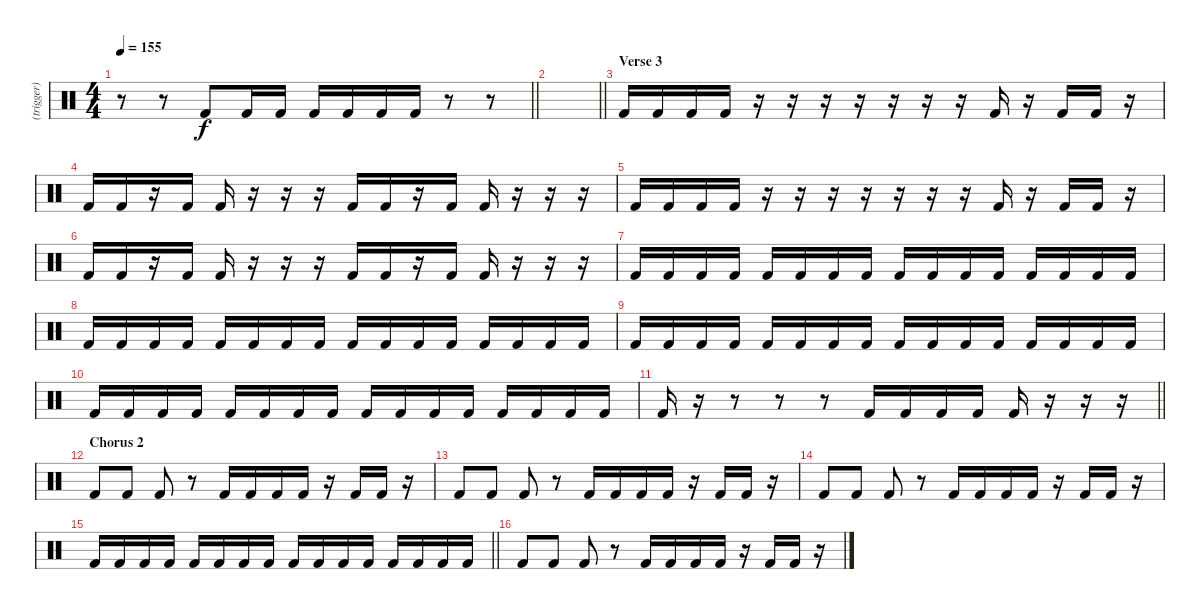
\track ("(trigger)" "(trigger)") {instrument percussion}
\staff {score}
\articulation defaults
\ts (4 4)
\tempo 155
\clef neutral
\barLineRight lightlight
\ks c
r.8{dy f} r.8 "Kick (hit) 2".8 "Kick (hit) 2".16 "Kick (hit) 2".16 "Kick (hit) 2".16 "Kick (hit) 2".16 "Kick (hit) 2".16 "Kick (hit) 2".16 r.8 r.8 |
\section ("" "")
\barLineRight lightlight
|
\section ("" "Verse 3")
"Kick (hit) 2".16 "Kick (hit) 2".16 "Kick (hit) 2".16 "Kick (hit) 2".16 r.16 r.16 r.16 r.16 r.16 r.16 r.16 "Kick (hit) 2".16 r.16 "Kick (hit) 2".16 "Kick (hit) 2".16 r.16 |
"Kick (hit) 2".16 "Kick (hit) 2".16 r.16 "Kick (hit) 2".16 "Kick (hit) 2".16 r.16 r.16 r.16 "Kick (hit) 2".16 "Kick (hit) 2".16 r.16 "Kick (hit) 2".16 "Kick (hit) 2".16 r.16 r.16 r.16 |
"Kick (hit) 2".16 "Kick (hit) 2".16 "Kick (hit) 2".16 "Kick (hit) 2".16 r.16 r.16 r.16 r.16 r.16 r.16 r.16 "Kick (hit) 2".16 r.16 "Kick (hit) 2".16 "Kick (hit) 2".16 r.16 |
"Kick (hit) 2".16 "Kick (hit) 2".16 r.16 "Kick (hit) 2".16 "Kick (hit) 2".16 r.16 r.16 r.16 "Kick (hit) 2".16 "Kick (hit) 2".16 r.16 "Kick (hit) 2".16 "Kick (hit) 2".16 r.16 r.16 r.16 |
"Kick (hit) 2".16 "Kick (hit) 2".16 "Kick (hit) 2".16 "Kick (hit) 2".16 "Kick (hit) 2".16 "Kick (hit) 2".16 "Kick (hit) 2".16 "Kick (hit) 2".16 "Kick (hit) 2".16 "Kick (hit) 2".16 "Kick (hit) 2".16 "Kick (hit) 2".16 "Kick (hit) 2".16 "Kick (hit) 2".16 "Kick (hit) 2".16 "Kick (hit) 2".16 |
"Kick (hit) 2".16 "Kick (hit) 2".16 "Kick (hit) 2".16 "Kick (hit) 2".16 "Kick (hit) 2".16 "Kick (hit) 2".16 "Kick (hit) 2".16 "Kick (hit) 2".16 "Kick (hit) 2".16 "Kick (hit) 2".16 "Kick (hit) 2".16 "Kick (hit) 2".16 "Kick (hit) 2".16 "Kick (hit) 2".16 "Kick (hit) 2".16 "Kick (hit) 2".16 |
"Kick (hit) 2".16 "Kick (hit) 2".16 "Kick (hit) 2".16 "Kick (hit) 2".16 "Kick (hit) 2".16 "Kick (hit) 2".16 "Kick (hit) 2".16 "Kick (hit) 2".16 "Kick (hit) 2".16 "Kick (hit) 2".16 "Kick (hit) 2".16 "Kick (hit) 2".16 "Kick (hit) 2".16 "Kick (hit) 2".16 "Kick (hit) 2".16 "Kick (hit) 2".16 |
"Kick (hit) 2".16 "Kick (hit) 2".16 "Kick (hit) 2".16 "Kick (hit) 2".16 "Kick (hit) 2".16 "Kick (hit) 2".16 "Kick (hit) 2".16 "Kick (hit) 2".16 "Kick (hit) 2".16 "Kick (hit) 2".16 "Kick (hit) 2".16 "Kick (hit) 2".16 "Kick (hit) 2".16 "Kick (hit) 2".16 "Kick (hit) 2".16 "Kick (hit) 2".16 |
\barLineRight lightlight "Kick (hit) 2".16
r.16 r.8 r.8 r.8 "Kick (hit) 2".16 "Kick (hit) 2".16 "Kick (hit) 2".16 "Kick (hit) 2".16 "Kick (hit) 2".16 r.16 r.16 r.16 |
\section ("" "Chorus 2")
"Kick (hit) 2".8 "Kick (hit) 2".8 "Kick (hit) 2".8 r.8 "Kick (hit) 2".16 "Kick (hit) 2".16 "Kick (hit) 2".16 "Kick (hit) 2".16 r.16 "Kick (hit) 2".16 "Kick (hit) 2".16 r.16 |
"Kick (hit) 2".8 "Kick (hit) 2".8 "Kick (hit) 2".8 r.8 "Kick (hit) 2".16 "Kick (hit) 2".16 "Kick (hit) 2".16 "Kick (hit) 2".16 r.16 "Kick (hit) 2".16 "Kick (hit) 2".16 r.16 |
"Kick (hit) 2".8 "Kick (hit) 2".8 "Kick (hit) 2".8 r.8 "Kick (hit) 2".16 "Kick (hit) 2".16 "Kick (hit) 2".16 "Kick (hit) 2".16 r.16 "Kick (hit) 2".16 "Kick (hit) 2".16 r.16 |
\barLineRight lightlight "Kick (hit) 2".16 "Kick (hit) 2".16 "Kick (hit) 2".16 "Kick (hit) 2".16 "Kick (hit) 2".16 "Kick (hit) 2".16 "Kick (hit) 2".16 "Kick (hit) 2".16 "Kick (hit) 2".16 "Kick (hit) 2".16 "Kick (hit) 2".16 "Kick (hit) 2".16 "Kick (hit) 2".16 "Kick (hit) 2".16 "Kick (hit) 2".16 "Kick (hit) 2".16
|
"Kick (hit) 2".8 "Kick (hit) 2".8 "Kick (hit) 2".8 r.8 "Kick (hit) 2".16 "Kick (hit) 2".16 "Kick (hit) 2".16 "Kick (hit) 2".16 r.16 "Kick (hit) 2".16 "Kick (hit) 2".16 r.16
